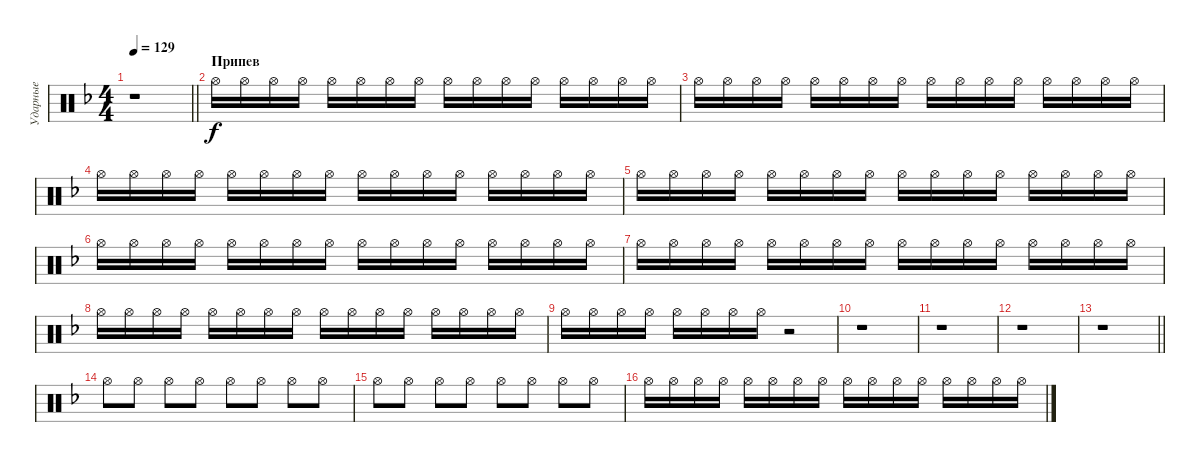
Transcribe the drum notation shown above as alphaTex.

\track ("Ударные" "Ударные") {instrument percussion}
\staff {score}
\articulation defaults
\ts (4 4)
\tempo 129
\clef neutral
\barLineRight lightlight
\ks dminor
r.1{dy f} |
\section ("" "Припев")
"Hi-Hat (open)".16 "Hi-Hat (open)".16 "Hi-Hat (open)".16 "Hi-Hat (open)".16 "Hi-Hat (open)".16 "Hi-Hat (open)".16 "Hi-Hat (open)".16 "Hi-Hat (open)".16 "Hi-Hat (open)".16 "Hi-Hat (open)".16 "Hi-Hat (open)".16 "Hi-Hat (open)".16 "Hi-Hat (open)".16 "Hi-Hat (open)".16 "Hi-Hat (open)".16 "Hi-Hat (open)".16 |
"Hi-Hat (open)".16 "Hi-Hat (open)".16 "Hi-Hat (open)".16 "Hi-Hat (open)".16 "Hi-Hat (open)".16 "Hi-Hat (open)".16 "Hi-Hat (open)".16 "Hi-Hat (open)".16 "Hi-Hat (open)".16 "Hi-Hat (open)".16 "Hi-Hat (open)".16 "Hi-Hat (open)".16 "Hi-Hat (open)".16 "Hi-Hat (open)".16 "Hi-Hat (open)".16 "Hi-Hat (open)".16 |
"Hi-Hat (open)".16 "Hi-Hat (open)".16 "Hi-Hat (open)".16 "Hi-Hat (open)".16 "Hi-Hat (open)".16 "Hi-Hat (open)".16 "Hi-Hat (open)".16 "Hi-Hat (open)".16 "Hi-Hat (open)".16 "Hi-Hat (open)".16 "Hi-Hat (open)".16 "Hi-Hat (open)".16 "Hi-Hat (open)".16 "Hi-Hat (open)".16 "Hi-Hat (open)".16 "Hi-Hat (open)".16 |
"Hi-Hat (open)".16 "Hi-Hat (open)".16 "Hi-Hat (open)".16 "Hi-Hat (open)".16 "Hi-Hat (open)".16 "Hi-Hat (open)".16 "Hi-Hat (open)".16 "Hi-Hat (open)".16 "Hi-Hat (open)".16 "Hi-Hat (open)".16 "Hi-Hat (open)".16 "Hi-Hat (open)".16 "Hi-Hat (open)".16 "Hi-Hat (open)".16 "Hi-Hat (open)".16 "Hi-Hat (open)".16 |
"Hi-Hat (open)".16 "Hi-Hat (open)".16 "Hi-Hat (open)".16 "Hi-Hat (open)".16 "Hi-Hat (open)".16 "Hi-Hat (open)".16 "Hi-Hat (open)".16 "Hi-Hat (open)".16 "Hi-Hat (open)".16 "Hi-Hat (open)".16 "Hi-Hat (open)".16 "Hi-Hat (open)".16 "Hi-Hat (open)".16 "Hi-Hat (open)".16 "Hi-Hat (open)".16 "Hi-Hat (open)".16 |
"Hi-Hat (open)".16 "Hi-Hat (open)".16 "Hi-Hat (open)".16 "Hi-Hat (open)".16 "Hi-Hat (open)".16 "Hi-Hat (open)".16 "Hi-Hat (open)".16 "Hi-Hat (open)".16 "Hi-Hat (open)".16 "Hi-Hat (open)".16 "Hi-Hat (open)".16 "Hi-Hat (open)".16 "Hi-Hat (open)".16 "Hi-Hat (open)".16 "Hi-Hat (open)".16 "Hi-Hat (open)".16 |
"Hi-Hat (open)".16 "Hi-Hat (open)".16 "Hi-Hat (open)".16 "Hi-Hat (open)".16 "Hi-Hat (open)".16 "Hi-Hat (open)".16 "Hi-Hat (open)".16 "Hi-Hat (open)".16 "Hi-Hat (open)".16 "Hi-Hat (open)".16 "Hi-Hat (open)".16 "Hi-Hat (open)".16 "Hi-Hat (open)".16 "Hi-Hat (open)".16 "Hi-Hat (open)".16 "Hi-Hat (open)".16 |
"Hi-Hat (open)".16 "Hi-Hat (open)".16 "Hi-Hat (open)".16 "Hi-Hat (open)".16 "Hi-Hat (open)".16 "Hi-Hat (open)".16 "Hi-Hat (open)".16 "Hi-Hat (open)".16 r.2 |
r.1 |
r.1 |
r.1 |
\barLineRight lightlight
r.1 |
"Hi-Hat (open)".8 "Hi-Hat (open)".8 "Hi-Hat (open)".8 "Hi-Hat (open)".8 "Hi-Hat (open)".8 "Hi-Hat (open)".8 "Hi-Hat (open)".8 "Hi-Hat (open)".8 |
"Hi-Hat (open)".8 "Hi-Hat (open)".8 "Hi-Hat (open)".8 "Hi-Hat (open)".8 "Hi-Hat (open)".8 "Hi-Hat (open)".8 "Hi-Hat (open)".8 "Hi-Hat (open)".8 |
"Hi-Hat (open)".16 "Hi-Hat (open)".16 "Hi-Hat (open)".16 "Hi-Hat (open)".16 "Hi-Hat (open)".16 "Hi-Hat (open)".16 "Hi-Hat (open)".16 "Hi-Hat (open)".16 "Hi-Hat (open)".16 "Hi-Hat (open)".16 "Hi-Hat (open)".16 "Hi-Hat (open)".16 "Hi-Hat (open)".16 "Hi-Hat (open)".16 "Hi-Hat (open)".16 "Hi-Hat (open)".16
